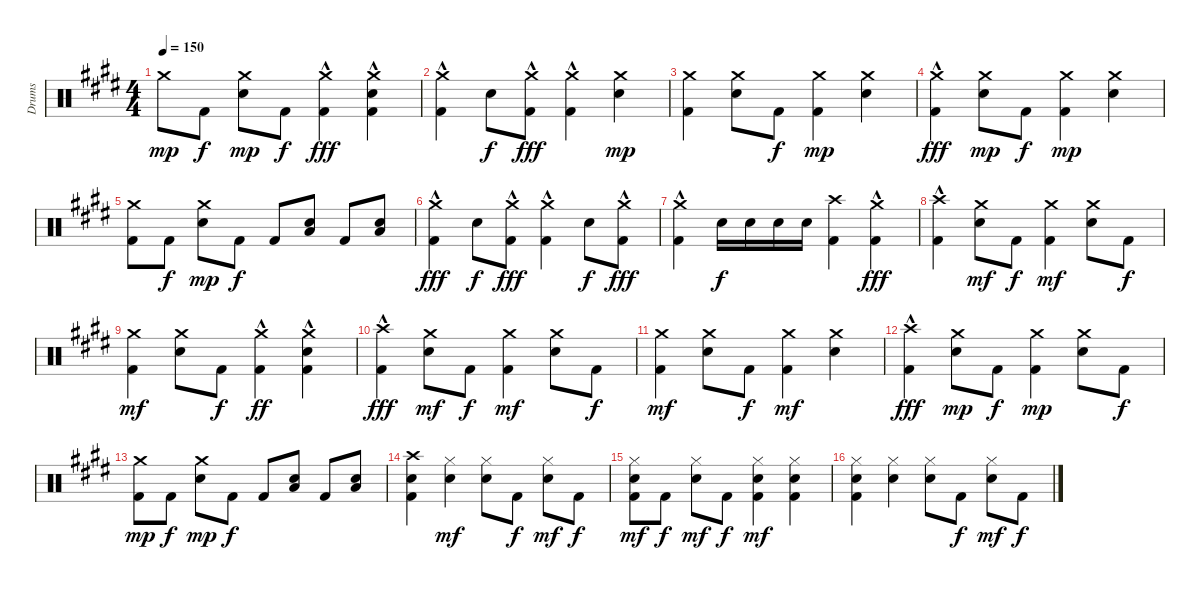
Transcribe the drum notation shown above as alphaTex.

\track ("Drums" "Drums") {instrument percussion}
\staff {score}
\articulation defaults
\ts (4 4)
\tempo 150
\clef neutral
\ks e "Crash medium (hit)".8{dy mp} "Kick (hit) 2".8{dy f}
("Crash medium (hit)" "Electric Snare (hit)").8{dy mp} "Kick (hit) 2".8{dy f} ("Crash medium (hit)"{hac} "Kick (hit) 2").4{dy fff} ("Crash medium (hit)"{hac} "Electric Snare (hit)" "Kick (hit) 2").4 |
("Crash medium (hit)"{hac} "Kick (hit) 2").4 "Electric Snare (hit)".8{dy f} ("Crash medium (hit)"{hac} "Kick (hit) 2").8{dy fff} ("Crash medium (hit)"{hac} "Kick (hit) 2").4 ("Crash medium (hit)" "Electric Snare (hit)").4{dy mp} |
("Crash medium (hit)" "Kick (hit) 2").4 ("Crash medium (hit)" "Electric Snare (hit)").8 "Kick (hit) 2".8{dy f} ("Crash medium (hit)" "Kick (hit) 2").4{dy mp} ("Crash medium (hit)" "Electric Snare (hit)").4 |
("Crash medium (hit)"{hac} "Kick (hit) 2").4{dy fff} ("Crash medium (hit)" "Electric Snare (hit)").8{dy mp} "Kick (hit) 2".8{dy f} ("Crash medium (hit)" "Kick (hit) 2").4{dy mp} ("Crash medium (hit)" "Electric Snare (hit)").4 |
("Crash medium (hit)" "Kick (hit) 2").8 "Kick (hit) 2".8{dy f} ("Crash medium (hit)" "Electric Snare (hit)").8{dy mp} "Kick (hit) 2".8{dy f} "Kick (hit) 2".8 ("Electric Snare (hit)" "Low Floor Tom (hit)").8 "Kick (hit) 2".8 ("Electric Snare (hit)" "Low Floor Tom (hit)").8 |
("Crash medium (hit)"{hac} "Kick (hit) 2").4{dy fff} "Electric Snare (hit)".8{dy f} ("Crash medium (hit)"{hac} "Kick (hit) 2").8{dy fff} ("Crash medium (hit)"{hac} "Kick (hit) 2").4 "Electric Snare (hit)".8{dy f} ("Crash medium (hit)"{hac} "Kick (hit) 2").8{dy fff} |
("Crash medium (hit)"{hac} "Kick (hit) 2").4 "Electric Snare (hit)".16{dy f} "Electric Snare (hit)".16 "Electric Snare (hit)".16 "Electric Snare (hit)".16 ("Crash high (hit)" "Kick (hit) 2").4 ("Crash medium (hit)"{hac} "Kick (hit) 2").4{dy fff} |
("Crash high (hit)"{hac} "Kick (hit) 2").4 ("Crash medium (hit)" "Electric Snare (hit)").8{dy mf} "Kick (hit) 2".8{dy f} ("Crash medium (hit)" "Kick (hit) 2").4{dy mf} ("Crash medium (hit)" "Electric Snare (hit)").8 "Kick (hit) 2".8{dy f} |
("Crash medium (hit)" "Kick (hit) 2").4{dy mf} ("Crash medium (hit)" "Electric Snare (hit)").8 "Kick (hit) 2".8{dy f} ("Crash medium (hit)"{hac} "Kick (hit) 2").4{dy ff} ("Crash medium (hit)"{hac} "Electric Snare (hit)" "Kick (hit) 2").4 |
("Crash high (hit)"{hac} "Kick (hit) 2").4{dy fff} ("Crash medium (hit)" "Electric Snare (hit)").8{dy mf} "Kick (hit) 2".8{dy f} ("Crash medium (hit)" "Kick (hit) 2").4{dy mf} ("Crash medium (hit)" "Electric Snare (hit)").8 "Kick (hit) 2".8{dy f} |
("Crash medium (hit)" "Kick (hit) 2").4{dy mf} ("Crash medium (hit)" "Electric Snare (hit)").8 "Kick (hit) 2".8{dy f} ("Crash medium (hit)" "Kick (hit) 2").4{dy mf} ("Crash medium (hit)" "Electric Snare (hit)").4 |
("Crash high (hit)"{hac} "Kick (hit) 2").4{dy fff} ("Crash medium (hit)" "Electric Snare (hit)").8{dy mp} "Kick (hit) 2".8{dy f} ("Crash medium (hit)" "Kick (hit) 2").4{dy mp} ("Crash medium (hit)" "Electric Snare (hit)").8 "Kick (hit) 2".8{dy f} |
("Crash medium (hit)" "Kick (hit) 2").8{dy mp} "Kick (hit) 2".8{dy f} ("Crash medium (hit)" "Electric Snare (hit)").8{dy mp} "Kick (hit) 2".8{dy f} "Kick (hit) 2".8 ("Electric Snare (hit)" "Low Floor Tom (hit)").8 "Kick (hit) 2".8 ("Electric Snare (hit)" "Low Floor Tom (hit)").8 |
("Crash high (hit)" "Electric Snare (hit)" "Kick (hit) 2").4 ("Hi-Hat (closed)" "Electric Snare (hit)").4{dy mf} ("Hi-Hat (closed)" "Electric Snare (hit)").8 "Kick (hit) 2".8{dy f} ("Hi-Hat (closed)" "Electric Snare (hit)").8{dy mf} "Kick (hit) 2".8{dy f} |
("Hi-Hat (closed)" "Electric Snare (hit)" "Kick (hit) 2").8{dy mf} "Kick (hit) 2".8{dy f} ("Hi-Hat (closed)" "Electric Snare (hit)").8{dy mf} "Kick (hit) 2".8{dy f} ("Hi-Hat (closed)" "Electric Snare (hit)" "Kick (hit) 2").4{dy mf} ("Hi-Hat (closed)" "Electric Snare (hit)" "Kick (hit) 2").4 |
("Hi-Hat (closed)" "Electric Snare (hit)" "Kick (hit) 2").4 ("Hi-Hat (closed)" "Electric Snare (hit)").4 ("Hi-Hat (closed)" "Electric Snare (hit)").8 "Kick (hit) 2".8{dy f} ("Hi-Hat (closed)" "Electric Snare (hit)").8{dy mf} "Kick (hit) 2".8{dy f}
